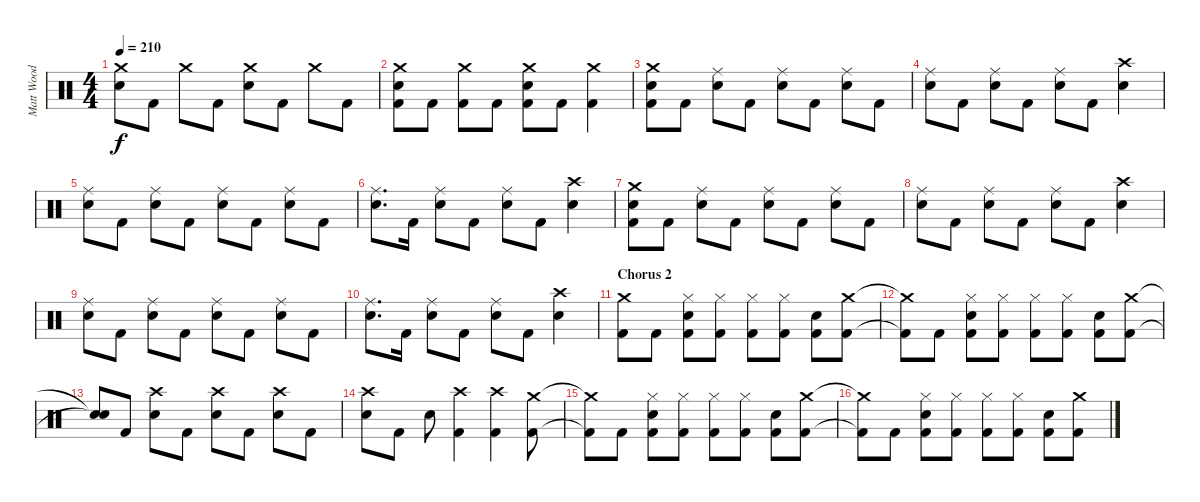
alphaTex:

\track ("Matt Wood" "Matt Wood") {instrument percussion}
\staff {score}
\articulation defaults
\ts (4 4)
\tempo 210
\clef neutral
\ks c
("Crash medium (hit)" "Snare (hit) 2").8{dy f} "Kick (hit) 2".8 "Crash medium (hit)".8 "Kick (hit) 2".8 ("Crash medium (hit)" "Snare (hit) 2").8 "Kick (hit) 2".8 "Crash medium (hit)".8 "Kick (hit) 2".8 |
("Crash medium (hit)" "Snare (hit) 2" "Kick (hit) 2").8 "Kick (hit) 2".8 ("Crash medium (hit)" "Kick (hit) 2").8 "Kick (hit) 2".8 ("Crash medium (hit)" "Snare (hit) 2" "Kick (hit) 2").8 "Kick (hit) 2".8 ("Crash medium (hit)" "Kick (hit) 2").4 |
("Crash medium (hit)" "Snare (hit) 2" "Kick (hit) 2").8 "Kick (hit) 2".8 ("Ride (middle)" "Snare (hit) 2").8 "Kick (hit) 2".8 ("Ride (middle)" "Snare (hit) 2").8 "Kick (hit) 2".8 ("Ride (middle)" "Snare (hit) 2").8 "Kick (hit) 2".8 |
("Ride (middle)" "Snare (hit) 2").8 "Kick (hit) 2".8 ("Ride (middle)" "Snare (hit) 2").8 "Kick (hit) 2".8 ("Ride (middle)" "Snare (hit) 2").8 "Kick (hit) 2".8 ("Crash high (hit)" "Snare (hit) 2").4 |
("Ride (middle)" "Snare (hit) 2").8 "Kick (hit) 2".8 ("Ride (middle)" "Snare (hit) 2").8 "Kick (hit) 2".8 ("Ride (middle)" "Snare (hit) 2").8 "Kick (hit) 2".8 ("Ride (middle)" "Snare (hit) 2").8 "Kick (hit) 2".8 |
("Ride (middle)" "Snare (hit) 2").8{d} "Kick (hit) 2".16 ("Ride (middle)" "Snare (hit) 2").8 "Kick (hit) 2".8 ("Ride (middle)" "Snare (hit) 2").8 "Kick (hit) 2".8 ("Crash high (hit)" "Snare (hit) 2").4 |
("Crash medium (hit)" "Snare (hit) 2" "Kick (hit) 2").8 "Kick (hit) 2".8 ("Ride (middle)" "Snare (hit) 2").8 "Kick (hit) 2".8 ("Ride (middle)" "Snare (hit) 2").8 "Kick (hit) 2".8 ("Ride (middle)" "Snare (hit) 2").8 "Kick (hit) 2".8 |
("Ride (middle)" "Snare (hit) 2").8 "Kick (hit) 2".8 ("Ride (middle)" "Snare (hit) 2").8 "Kick (hit) 2".8 ("Ride (middle)" "Snare (hit) 2").8 "Kick (hit) 2".8 ("Crash high (hit)" "Snare (hit) 2").4 |
("Ride (middle)" "Snare (hit) 2").8 "Kick (hit) 2".8 ("Ride (middle)" "Snare (hit) 2").8 "Kick (hit) 2".8 ("Ride (middle)" "Snare (hit) 2").8 "Kick (hit) 2".8 ("Ride (middle)" "Snare (hit) 2").8 "Kick (hit) 2".8 |
("Ride (middle)" "Snare (hit) 2").8{d} "Kick (hit) 2".16 ("Ride (middle)" "Snare (hit) 2").8 "Kick (hit) 2".8 ("Ride (middle)" "Snare (hit) 2").8 "Kick (hit) 2".8 ("Crash high (hit)" "Snare (hit) 2").4 |
\section ("" "Chorus 2")
("Crash medium (hit)" "Kick (hit) 2").8 "Kick (hit) 2".8 ("Hi-Hat (closed)" "Snare (hit) 2" "Kick (hit) 2").8 ("Hi-Hat (closed)" "Kick (hit) 2").8 ("Hi-Hat (closed)" "Kick (hit) 2").8 ("Hi-Hat (closed)" "Kick (hit) 2").8 ("Snare (hit) 2" "Kick (hit) 2").8 ("Crash medium (hit)" "Kick (hit) 2").8 |
("Crash medium (hit)"{t} "Kick (hit) 2"{t}).8 "Kick (hit) 2".8 ("Hi-Hat (closed)" "Snare (hit) 2" "Kick (hit) 2").8 ("Hi-Hat (closed)" "Kick (hit) 2").8 ("Hi-Hat (closed)" "Kick (hit) 2").8 ("Hi-Hat (closed)" "Kick (hit) 2").8 ("Snare (hit) 2" "Kick (hit) 2").8 ("Crash medium (hit)" "Kick (hit) 2").8 |
("Snare (hit)"{t} "Snare (hit)"{t}).8 "Kick (hit) 2".8 ("Crash high (hit)" "Snare (hit) 2").8 "Kick (hit) 2".8 ("Crash high (hit)" "Snare (hit) 2").8 "Kick (hit) 2".8 ("Crash high (hit)" "Snare (hit) 2").8 "Kick (hit) 2".8 |
("Crash high (hit)" "Snare (hit) 2").8 "Kick (hit) 2".8 "Snare (hit) 2".8 ("Crash high (hit)" "Kick (hit) 2").4 ("Crash high (hit)" "Kick (hit) 2").4 ("Crash medium (hit)" "Kick (hit) 2").8 |
("Crash medium (hit)"{t} "Kick (hit) 2"{t}).8 "Kick (hit) 2".8 ("Hi-Hat (closed)" "Snare (hit) 2" "Kick (hit) 2").8 ("Hi-Hat (closed)" "Kick (hit) 2").8 ("Hi-Hat (closed)" "Kick (hit) 2").8 ("Hi-Hat (closed)" "Kick (hit) 2").8 ("Snare (hit) 2" "Kick (hit) 2").8 ("Crash medium (hit)" "Kick (hit) 2").8 |
("Crash medium (hit)"{t} "Kick (hit) 2"{t}).8 "Kick (hit) 2".8 ("Hi-Hat (closed)" "Snare (hit) 2" "Kick (hit) 2").8 ("Hi-Hat (closed)" "Kick (hit) 2").8 ("Hi-Hat (closed)" "Kick (hit) 2").8 ("Hi-Hat (closed)" "Kick (hit) 2").8 ("Snare (hit) 2" "Kick (hit) 2").8 ("Crash medium (hit)" "Kick (hit) 2").8
